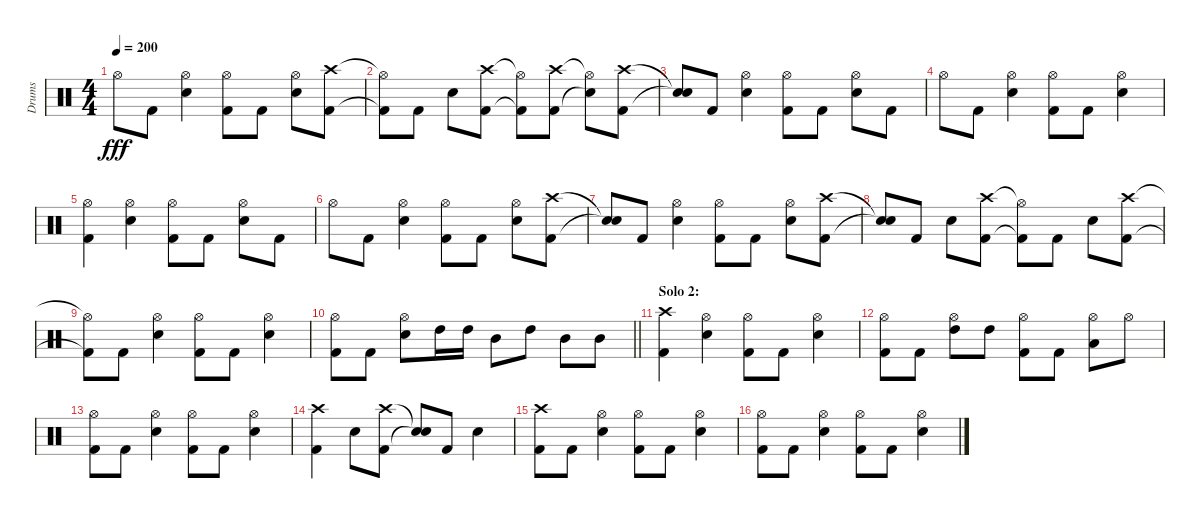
\track ("Drums" "Drums") {instrument percussion}
\staff {score}
\articulation defaults
\ts (4 4)
\tempo 200
\clef neutral
\ks c "Hi-Hat (open)".8{dy fff} "Kick (hit) 2".8
("Hi-Hat (open)" "Electric Snare (hit)").4 ("Hi-Hat (open)" "Kick (hit) 2").8 "Kick (hit) 2".8 ("Hi-Hat (open)" "Electric Snare (hit)").8 ("Crash high (hit)" "Kick (hit) 2").8 |
("Hi-Hat (open)"{t} "Kick (hit) 2"{t}).8 "Kick (hit) 2".8 "Electric Snare (hit)".8 ("Crash high (hit)" "Kick (hit) 2").8 ("Hi-Hat (open)"{t} "Kick (hit) 2"{t}).8 ("Crash high (hit)" "Kick (hit) 2").8 ("Hi-Hat (open)"{t} "Snare (hit)"{t}).8 ("Crash high (hit)" "Kick (hit) 2").8 |
("Snare (hit)"{t} "Snare (hit)"{t}).8 "Kick (hit) 2".8 ("Hi-Hat (open)" "Electric Snare (hit)").4 ("Hi-Hat (open)" "Kick (hit) 2").8 "Kick (hit) 2".8 ("Hi-Hat (open)" "Electric Snare (hit)").8 "Kick (hit) 2".8 |
"Hi-Hat (open)".8 "Kick (hit) 2".8 ("Hi-Hat (open)" "Electric Snare (hit)").4 ("Hi-Hat (open)" "Kick (hit) 2").8 "Kick (hit) 2".8 ("Hi-Hat (open)" "Electric Snare (hit)").4 |
("Hi-Hat (open)" "Kick (hit) 2").4 ("Hi-Hat (open)" "Electric Snare (hit)").4 ("Hi-Hat (open)" "Kick (hit) 2").8 "Kick (hit) 2".8 ("Hi-Hat (open)" "Electric Snare (hit)").8 "Kick (hit) 2".8 |
"Hi-Hat (open)".8 "Kick (hit) 2".8 ("Hi-Hat (open)" "Electric Snare (hit)").4 ("Hi-Hat (open)" "Kick (hit) 2").8 "Kick (hit) 2".8 ("Hi-Hat (open)" "Electric Snare (hit)").8 ("Crash high (hit)" "Kick (hit) 2").8 |
("Snare (hit)"{t} "Snare (hit)"{t}).8 "Kick (hit) 2".8 ("Hi-Hat (open)" "Electric Snare (hit)").4 ("Hi-Hat (open)" "Kick (hit) 2").8 "Kick (hit) 2".8 ("Hi-Hat (open)" "Electric Snare (hit)").8 ("Crash high (hit)" "Kick (hit) 2").8 |
("Snare (hit)"{t} "Snare (hit)"{t}).8 "Kick (hit) 2".8 "Electric Snare (hit)".8 ("Crash high (hit)" "Kick (hit) 2").8 ("Hi-Hat (open)"{t} "Kick (hit) 2"{t}).8 "Kick (hit) 2".8 "Electric Snare (hit)".8 ("Crash high (hit)" "Kick (hit) 2").8 |
("Hi-Hat (open)"{t} "Kick (hit) 2"{t}).8 "Kick (hit) 2".8 ("Hi-Hat (open)" "Electric Snare (hit)").4 ("Hi-Hat (open)" "Kick (hit) 2").8 "Kick (hit) 2".8 ("Hi-Hat (open)" "Electric Snare (hit)").4 |
\barLineRight lightlight
("Hi-Hat (open)" "Kick (hit) 2").8 "Kick (hit) 2".8 ("Hi-Hat (open)" "Electric Snare (hit)").8 "High Tom (hit)".16 "High Tom (hit)".16 "Mid Tom (hit)".8 "High Tom (hit)".8 "Mid Tom (hit)".8 "Mid Tom (hit)".8 |
\section ("" "Solo 2:")
("Crash high (hit)" "Kick (hit) 2").4 ("Hi-Hat (open)" "Electric Snare (hit)").4 ("Hi-Hat (open)" "Kick (hit) 2").8 "Kick (hit) 2".8 ("Hi-Hat (open)" "Electric Snare (hit)").4 |
("Hi-Hat (open)" "Kick (hit) 2").8 "Kick (hit) 2".8 ("Hi-Hat (open)" "High Tom (hit)").8 "High Tom (hit)".8 ("Hi-Hat (open)" "Kick (hit) 2").8 "Kick (hit) 2".8 ("Hi-Hat (open)" "Low Tom (hit)").8 "Hi-Hat (open)".8 |
("Hi-Hat (open)" "Kick (hit) 2").8 "Kick (hit) 2".8 ("Hi-Hat (open)" "Electric Snare (hit)").4 ("Hi-Hat (open)" "Kick (hit) 2").8 "Kick (hit) 2".8 ("Hi-Hat (open)" "Electric Snare (hit)").4 |
("Crash high (hit)" "Kick (hit) 2").4 "Electric Snare (hit)".8 ("Crash high (hit)" "Kick (hit) 2").8 ("Snare (hit)"{t} "Snare (hit)"{t}).8 "Kick (hit) 2".8 "Electric Snare (hit)".4 |
("Crash high (hit)" "Kick (hit) 2").8 "Kick (hit) 2".8 ("Hi-Hat (open)" "Electric Snare (hit)").4 ("Hi-Hat (open)" "Kick (hit) 2").8 "Kick (hit) 2".8 ("Hi-Hat (open)" "Electric Snare (hit)").4 |
("Hi-Hat (open)" "Kick (hit) 2").8 "Kick (hit) 2".8 ("Hi-Hat (open)" "Electric Snare (hit)").4 ("Hi-Hat (open)" "Kick (hit) 2").8 "Kick (hit) 2".8 ("Hi-Hat (open)" "Electric Snare (hit)").4
